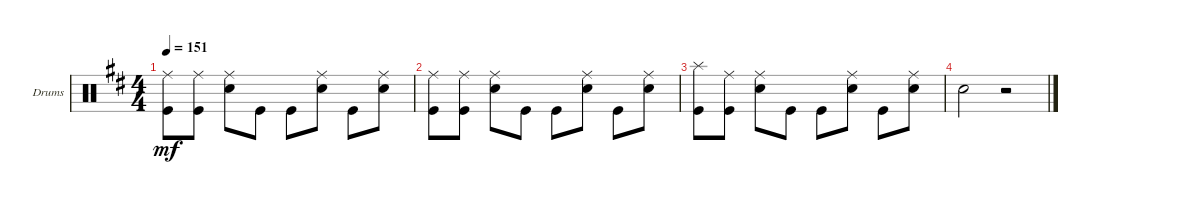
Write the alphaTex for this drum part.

\defaultSystemsLayout 4
\bracketExtendMode groupsimilarinstruments
\firstSystemTrackNameOrientation horizontal
\otherSystemsTrackNameOrientation horizontal
\track ("Drumkit" "Drums") {instrument percussion}
\staff {score}
\articulation defaults
\ts (4 4)
\tempo 151
\clef neutral
\ks bminor
("Kick (hit)" "Ride (middle)").8{dy mf} ("Kick (hit)" "Ride (middle)").8 ("Snare (hit) 2" "Ride (middle)").8 "Kick (hit)".8 "Kick (hit)".8 ("Snare (hit) 2" "Ride (middle)").8 "Kick (hit)".8 ("Snare (hit) 2" "Ride (middle)").8 |
("Kick (hit)" "Ride (middle)").8 ("Kick (hit)" "Ride (middle)").8 ("Snare (hit) 2" "Ride (middle)").8 "Kick (hit)".8 "Kick (hit)".8 ("Snare (hit) 2" "Ride (middle)").8 "Kick (hit)".8 ("Snare (hit) 2" "Ride (middle)").8 |
("Kick (hit)" "Splash (hit)").8 ("Kick (hit)" "Ride (middle)").8 ("Snare (hit) 2" "Ride (middle)").8 "Kick (hit)".8 "Kick (hit)".8 ("Snare (hit) 2" "Ride (middle)").8 "Kick (hit)".8 ("Snare (hit) 2" "Ride (middle)").8 |
"Snare (hit) 2".2 r.2
